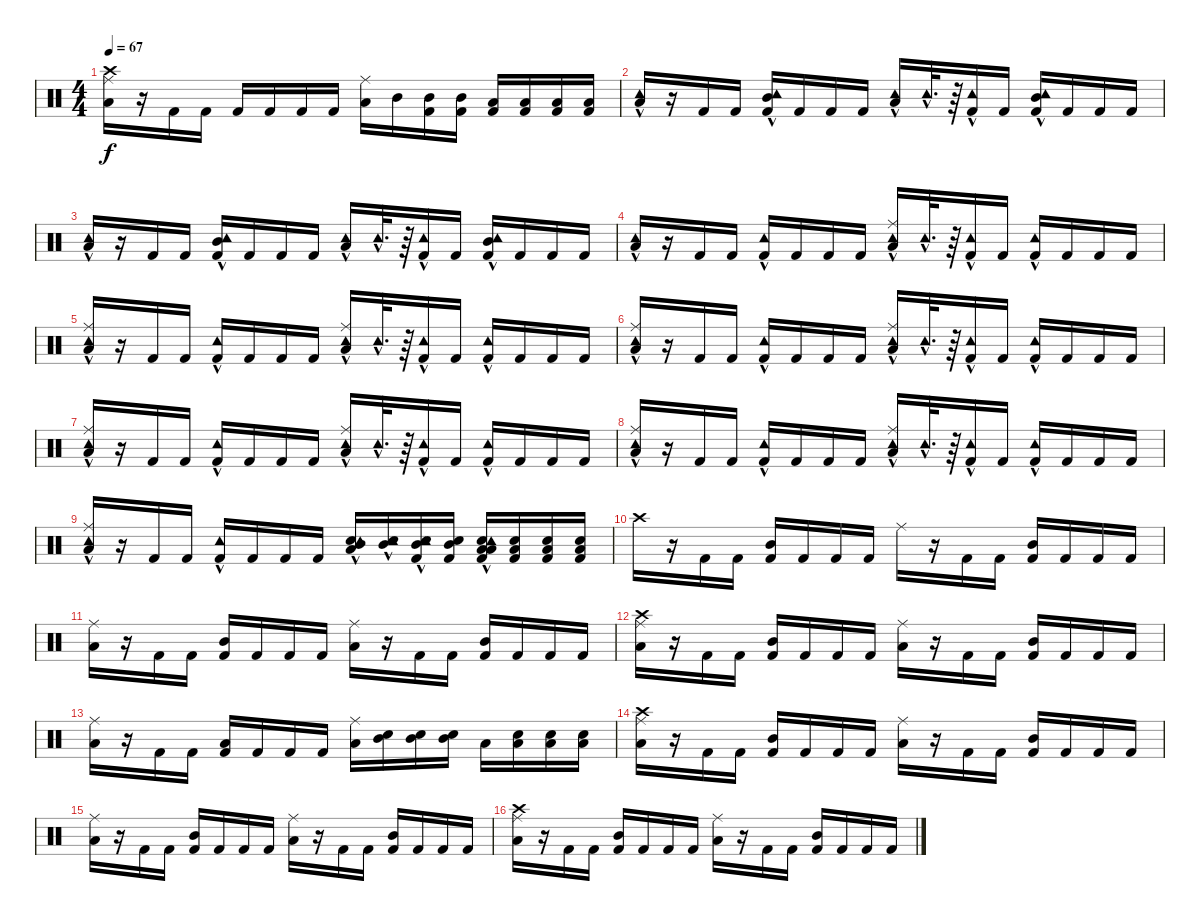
\track "" {instrument percussion}
\staff {score}
\articulation defaults
\ts (4 4)
\tempo 67
\clef neutral
\ks c
("Low Floor Tom (hit)" "Crash high (hit)" "Ride (middle)").16{dy f} r.16 "Kick (hit) 2".16 "Kick (hit) 2".16 "Kick (hit) 2".16 "Kick (hit) 2".16 "Kick (hit) 2".16 "Kick (hit) 2".16 ("Low Floor Tom (hit)" "Ride (middle)").16 "Mid Tom (hit)".16 ("Kick (hit) 2" "Mid Tom (hit)").16 ("Kick (hit) 2" "Mid Tom (hit)").16 ("Kick (hit) 2" "Low Floor Tom (hit)").16 ("Kick (hit) 2" "Low Tom (hit)").16 ("Kick (hit) 2" "Low Tom (hit)").16 ("Kick (hit) 2" "Low Tom (hit)").16 |
("Low Floor Tom (hit)" "Tambourine (hit)"{hac}).16 r.16 "Kick (hit) 2".16 "Kick (hit) 2".16 ("Kick (hit) 2" "Mid Tom (hit)" "Tambourine (hit)"{hac}).16 "Kick (hit) 2".16 "Kick (hit) 2".16 "Kick (hit) 2".16 ("Low Floor Tom (hit)" "Tambourine (hit)"{hac}).16 "Tambourine (hit)"{hac}.32{d} r.64 ("Kick (hit) 2" "Tambourine (hit)"{hac}).16 "Kick (hit) 2".16 ("Kick (hit) 2" "Mid Tom (hit)" "Tambourine (hit)"{hac}).16 "Kick (hit) 2".16 "Kick (hit) 2".16 "Kick (hit) 2".16 |
("Low Floor Tom (hit)" "Tambourine (hit)"{hac}).16 r.16 "Kick (hit) 2".16 "Kick (hit) 2".16 ("Kick (hit) 2" "Mid Tom (hit)" "Tambourine (hit)"{hac}).16 "Kick (hit) 2".16 "Kick (hit) 2".16 "Kick (hit) 2".16 ("Low Floor Tom (hit)" "Tambourine (hit)"{hac}).16 "Tambourine (hit)"{hac}.32{d} r.64 ("Kick (hit) 2" "Tambourine (hit)"{hac}).16 "Kick (hit) 2".16 ("Kick (hit) 2" "Mid Tom (hit)" "Tambourine (hit)"{hac}).16 "Kick (hit) 2".16 "Kick (hit) 2".16 "Kick (hit) 2".16 |
("Low Floor Tom (hit)" "Tambourine (hit)"{hac}).16 r.16 "Kick (hit) 2".16 "Kick (hit) 2".16 ("Kick (hit) 2" "Tambourine (hit)"{hac}).16 "Kick (hit) 2".16 "Kick (hit) 2".16 "Kick (hit) 2".16 ("Low Floor Tom (hit)" "Ride (middle)" "Tambourine (hit)"{hac}).16 "Tambourine (hit)"{hac}.32{d} r.64 ("Kick (hit) 2" "Tambourine (hit)"{hac}).16 "Kick (hit) 2".16 ("Kick (hit) 2" "Tambourine (hit)"{hac}).16 "Kick (hit) 2".16 "Kick (hit) 2".16 "Kick (hit) 2".16 |
("Low Floor Tom (hit)" "Ride (middle)" "Tambourine (hit)"{hac}).16 r.16 "Kick (hit) 2".16 "Kick (hit) 2".16 ("Kick (hit) 2" "Tambourine (hit)"{hac}).16 "Kick (hit) 2".16 "Kick (hit) 2".16 "Kick (hit) 2".16 ("Low Floor Tom (hit)" "Ride (middle)" "Tambourine (hit)"{hac}).16 "Tambourine (hit)"{hac}.32{d} r.64 ("Kick (hit) 2" "Tambourine (hit)"{hac}).16 "Kick (hit) 2".16 ("Kick (hit) 2" "Tambourine (hit)"{hac}).16 "Kick (hit) 2".16 "Kick (hit) 2".16 "Kick (hit) 2".16 |
("Low Floor Tom (hit)" "Ride (middle)" "Tambourine (hit)"{hac}).16 r.16 "Kick (hit) 2".16 "Kick (hit) 2".16 ("Kick (hit) 2" "Tambourine (hit)"{hac}).16 "Kick (hit) 2".16 "Kick (hit) 2".16 "Kick (hit) 2".16 ("Low Floor Tom (hit)" "Ride (middle)" "Tambourine (hit)"{hac}).16 "Tambourine (hit)"{hac}.32{d} r.64 ("Kick (hit) 2" "Tambourine (hit)"{hac}).16 "Kick (hit) 2".16 ("Kick (hit) 2" "Tambourine (hit)"{hac}).16 "Kick (hit) 2".16 "Kick (hit) 2".16 "Kick (hit) 2".16 |
("Low Floor Tom (hit)" "Ride (middle)" "Tambourine (hit)"{hac}).16 r.16 "Kick (hit) 2".16 "Kick (hit) 2".16 ("Kick (hit) 2" "Tambourine (hit)"{hac}).16 "Kick (hit) 2".16 "Kick (hit) 2".16 "Kick (hit) 2".16 ("Low Floor Tom (hit)" "Ride (middle)" "Tambourine (hit)"{hac}).16 "Tambourine (hit)"{hac}.32{d} r.64 ("Kick (hit) 2" "Tambourine (hit)"{hac}).16 "Kick (hit) 2".16 ("Kick (hit) 2" "Tambourine (hit)"{hac}).16 "Kick (hit) 2".16 "Kick (hit) 2".16 "Kick (hit) 2".16 |
("Low Floor Tom (hit)" "Ride (middle)" "Tambourine (hit)"{hac}).16 r.16 "Kick (hit) 2".16 "Kick (hit) 2".16 ("Kick (hit) 2" "Tambourine (hit)"{hac}).16 "Kick (hit) 2".16 "Kick (hit) 2".16 "Kick (hit) 2".16 ("Low Floor Tom (hit)" "Ride (middle)" "Tambourine (hit)"{hac}).16 "Tambourine (hit)"{hac}.32{d} r.64 ("Kick (hit) 2" "Tambourine (hit)"{hac}).16 "Kick (hit) 2".16 ("Kick (hit) 2" "Tambourine (hit)"{hac}).16 "Kick (hit) 2".16 "Kick (hit) 2".16 "Kick (hit) 2".16 |
("Low Floor Tom (hit)" "Ride (middle)" "Tambourine (hit)"{hac}).16 r.16 "Kick (hit) 2".16 "Kick (hit) 2".16 ("Kick (hit) 2" "Tambourine (hit)"{hac}).16 "Kick (hit) 2".16 "Kick (hit) 2".16 "Kick (hit) 2".16 ("Electric Snare (hit)" "Low Floor Tom (hit)" "Mid Tom (hit)" "Tambourine (hit)"{hac}).16 ("Electric Snare (hit)" "Mid Tom (hit)" "Tambourine (hit)"{hac}).16 ("Electric Snare (hit)" "Kick (hit) 2" "Mid Tom (hit)" "Tambourine (hit)"{hac}).16 ("Electric Snare (hit)" "Kick (hit) 2" "Mid Tom (hit)").16 ("Snare (hit) 2" "Kick (hit) 2" "Low Floor Tom (hit)" "Low Tom (hit)" "Tambourine (hit)"{hac}).16 ("Snare (hit) 2" "Kick (hit) 2" "Low Tom (hit)").16 ("Snare (hit) 2" "Kick (hit) 2" "Low Tom (hit)").16 ("Snare (hit) 2" "Kick (hit) 2" "Low Tom (hit)").16 |
"Crash high (hit)".16 r.16 "Kick (hit) 2".16 "Kick (hit) 2".16 ("Mid Tom (hit)" "Kick (hit) 2").16 "Kick (hit) 2".16 "Kick (hit) 2".16 "Kick (hit) 2".16 "Ride (middle)".16 r.16 "Kick (hit) 2".16 "Kick (hit) 2".16 ("Mid Tom (hit)" "Kick (hit) 2").16 "Kick (hit) 2".16 "Kick (hit) 2".16 "Kick (hit) 2".16 |
("Low Floor Tom (hit)" "Ride (middle)").16 r.16 "Kick (hit) 2".16 "Kick (hit) 2".16 ("Mid Tom (hit)" "Kick (hit) 2").16 "Kick (hit) 2".16 "Kick (hit) 2".16 "Kick (hit) 2".16 ("Low Floor Tom (hit)" "Ride (middle)").16 r.16 "Kick (hit) 2".16 "Kick (hit) 2".16 ("Mid Tom (hit)" "Kick (hit) 2").16 "Kick (hit) 2".16 "Kick (hit) 2".16 "Kick (hit) 2".16 |
("Low Floor Tom (hit)" "Crash high (hit)" "Ride (middle)").16 r.16 "Kick (hit) 2".16 "Kick (hit) 2".16 ("Mid Tom (hit)" "Kick (hit) 2").16 "Kick (hit) 2".16 "Kick (hit) 2".16 "Kick (hit) 2".16 ("Low Floor Tom (hit)" "Ride (middle)").16 r.16 "Kick (hit) 2".16 "Kick (hit) 2".16 ("Mid Tom (hit)" "Kick (hit) 2").16 "Kick (hit) 2".16 "Kick (hit) 2".16 "Kick (hit) 2".16 |
("Low Floor Tom (hit)" "Ride (middle)").16 r.16 "Kick (hit) 2".16 "Kick (hit) 2".16 ("Kick (hit) 2" "Low Tom (hit)").16 "Kick (hit) 2".16 "Kick (hit) 2".16 "Kick (hit) 2".16 ("Low Floor Tom (hit)" "Ride (middle)").16 ("Electric Snare (hit)" "Mid Tom (hit)").16 ("Electric Snare (hit)" "Mid Tom (hit)").16 ("Electric Snare (hit)" "Mid Tom (hit)").16 "Low Floor Tom (hit)".16 ("Snare (hit) 2" "Low Tom (hit)").16 ("Snare (hit) 2" "Low Tom (hit)").16 ("Snare (hit) 2" "Low Tom (hit)").16 |
("Low Floor Tom (hit)" "Crash high (hit)" "Ride (middle)").16 r.16 "Kick (hit) 2".16 "Kick (hit) 2".16 ("Mid Tom (hit)" "Kick (hit) 2").16 "Kick (hit) 2".16 "Kick (hit) 2".16 "Kick (hit) 2".16 ("Low Floor Tom (hit)" "Ride (middle)").16 r.16 "Kick (hit) 2".16 "Kick (hit) 2".16 ("Mid Tom (hit)" "Kick (hit) 2").16 "Kick (hit) 2".16 "Kick (hit) 2".16 "Kick (hit) 2".16 |
("Low Floor Tom (hit)" "Ride (middle)").16 r.16 "Kick (hit) 2".16 "Kick (hit) 2".16 ("Mid Tom (hit)" "Kick (hit) 2").16 "Kick (hit) 2".16 "Kick (hit) 2".16 "Kick (hit) 2".16 ("Low Floor Tom (hit)" "Ride (middle)").16 r.16 "Kick (hit) 2".16 "Kick (hit) 2".16 ("Mid Tom (hit)" "Kick (hit) 2").16 "Kick (hit) 2".16 "Kick (hit) 2".16 "Kick (hit) 2".16 |
("Crash high (hit)" "Low Floor Tom (hit)" "Ride (middle)").16 r.16 "Kick (hit) 2".16 "Kick (hit) 2".16 ("Mid Tom (hit)" "Kick (hit) 2").16 "Kick (hit) 2".16 "Kick (hit) 2".16 "Kick (hit) 2".16 ("Low Floor Tom (hit)" "Ride (middle)").16 r.16 "Kick (hit) 2".16 "Kick (hit) 2".16 ("Mid Tom (hit)" "Kick (hit) 2").16 "Kick (hit) 2".16 "Kick (hit) 2".16 "Kick (hit) 2".16
